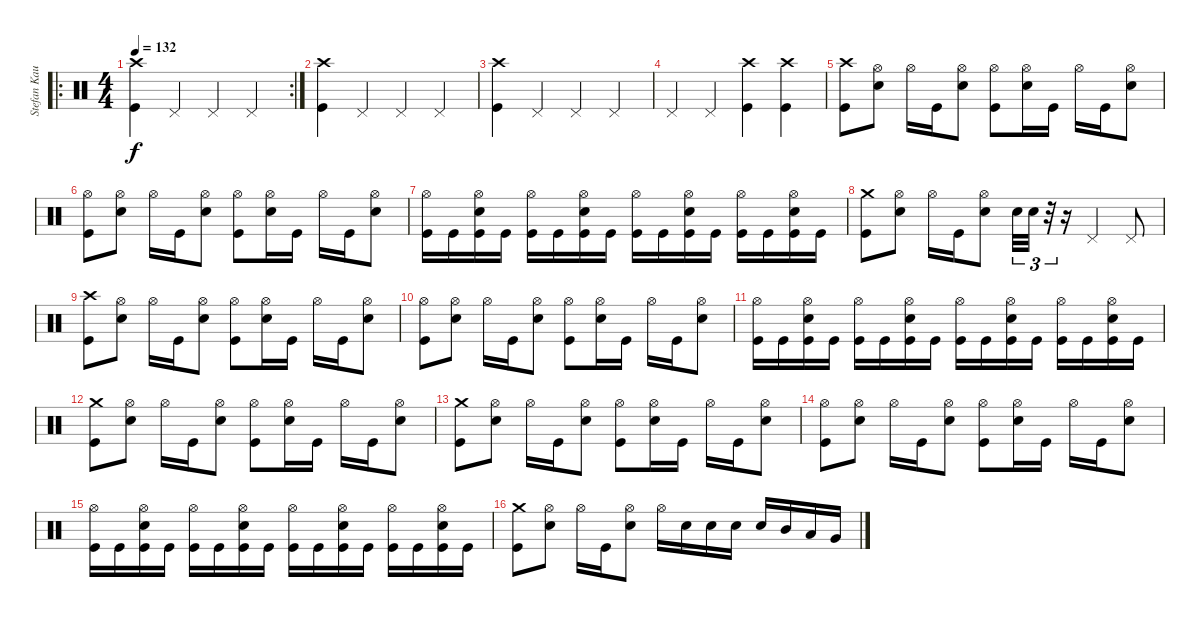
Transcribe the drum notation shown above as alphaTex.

\track ("Stefan Kaufmann" "Stefan Kau") {instrument percussion}
\staff {score}
\articulation defaults
\ro
\rc 2
\ts (4 4)
\tempo 132
\clef neutral
\ks c
("Crash high (hit)" "Kick (hit)").4{dy f} "Pedal Hi-Hat (hit)".4 "Pedal Hi-Hat (hit)".4 "Pedal Hi-Hat (hit)".4 |
("Crash high (hit)" "Kick (hit)").4 "Pedal Hi-Hat (hit)".4 "Pedal Hi-Hat (hit)".4 "Pedal Hi-Hat (hit)".4 |
("Crash high (hit)" "Kick (hit)").4 "Pedal Hi-Hat (hit)".4 "Pedal Hi-Hat (hit)".4 "Pedal Hi-Hat (hit)".4 |
"Pedal Hi-Hat (hit)".4 "Pedal Hi-Hat (hit)".4 ("Crash high (hit)" "Kick (hit)").4 ("Crash high (hit)" "Kick (hit)").4 |
("Crash high (hit)" "Kick (hit)").8 ("Hi-Hat (open)" "Snare (hit) 2").8 "Hi-Hat (open)".16 "Kick (hit)".16 ("Hi-Hat (open)" "Snare (hit) 2").8 ("Hi-Hat (open)" "Kick (hit)").8 ("Hi-Hat (open)" "Snare (hit) 2").16 "Kick (hit)".16 "Hi-Hat (open)".16 "Kick (hit)".16 ("Hi-Hat (open)" "Snare (hit) 2").8 |
("Hi-Hat (open)" "Kick (hit)").8 ("Hi-Hat (open)" "Snare (hit) 2").8 "Hi-Hat (open)".16 "Kick (hit)".16 ("Hi-Hat (open)" "Snare (hit) 2").8 ("Hi-Hat (open)" "Kick (hit)").8 ("Hi-Hat (open)" "Snare (hit) 2").16 "Kick (hit)".16 "Hi-Hat (open)".16 "Kick (hit)".16 ("Hi-Hat (open)" "Snare (hit) 2").8 |
("Hi-Hat (open)" "Kick (hit)").16 "Kick (hit)".16 ("Hi-Hat (open)" "Snare (hit) 2" "Kick (hit)").16 "Kick (hit)".16 ("Hi-Hat (open)" "Kick (hit)").16 "Kick (hit)".16 ("Hi-Hat (open)" "Snare (hit) 2" "Kick (hit)").16 "Kick (hit)".16 ("Hi-Hat (open)" "Kick (hit)").16 "Kick (hit)".16 ("Hi-Hat (open)" "Snare (hit) 2" "Kick (hit)").16 "Kick (hit)".16 ("Hi-Hat (open)" "Kick (hit)").16 "Kick (hit)".16 ("Hi-Hat (open)" "Snare (hit) 2" "Kick (hit)").16 "Kick (hit)".16 |
("Crash medium (hit)" "Kick (hit)").8 ("Hi-Hat (open)" "Snare (hit) 2").8 "Hi-Hat (open)".16 "Kick (hit)".16 ("Hi-Hat (open)" "Snare (hit) 2").8 "Snare (hit) 2".32{tu (3 2)} "Snare (hit) 2".32{tu (3 2)} r.32{tu (3 2)} r.16 "Pedal Hi-Hat (hit)".4 "Pedal Hi-Hat (hit)".8 |
("Crash high (hit)" "Kick (hit)").8 ("Hi-Hat (open)" "Snare (hit) 2").8 "Hi-Hat (open)".16 "Kick (hit)".16 ("Hi-Hat (open)" "Snare (hit) 2").8 ("Hi-Hat (open)" "Kick (hit)").8 ("Hi-Hat (open)" "Snare (hit) 2").16 "Kick (hit)".16 "Hi-Hat (open)".16 "Kick (hit)".16 ("Hi-Hat (open)" "Snare (hit) 2").8 |
("Hi-Hat (open)" "Kick (hit)").8 ("Hi-Hat (open)" "Snare (hit) 2").8 "Hi-Hat (open)".16 "Kick (hit)".16 ("Hi-Hat (open)" "Snare (hit) 2").8 ("Hi-Hat (open)" "Kick (hit)").8 ("Hi-Hat (open)" "Snare (hit) 2").16 "Kick (hit)".16 "Hi-Hat (open)".16 "Kick (hit)".16 ("Hi-Hat (open)" "Snare (hit) 2").8 |
("Hi-Hat (open)" "Kick (hit)").16 "Kick (hit)".16 ("Hi-Hat (open)" "Snare (hit) 2" "Kick (hit)").16 "Kick (hit)".16 ("Hi-Hat (open)" "Kick (hit)").16 "Kick (hit)".16 ("Hi-Hat (open)" "Snare (hit) 2" "Kick (hit)").16 "Kick (hit)".16 ("Hi-Hat (open)" "Kick (hit)").16 "Kick (hit)".16 ("Hi-Hat (open)" "Snare (hit) 2" "Kick (hit)").16 "Kick (hit)".16 ("Hi-Hat (open)" "Kick (hit)").16 "Kick (hit)".16 ("Hi-Hat (open)" "Snare (hit) 2" "Kick (hit)").16 "Kick (hit)".16 |
("Crash medium (hit)" "Kick (hit)").8 ("Hi-Hat (open)" "Snare (hit) 2").8 "Hi-Hat (open)".16 "Kick (hit)".16 ("Hi-Hat (open)" "Snare (hit) 2").8 ("Hi-Hat (open)" "Kick (hit)").8 ("Hi-Hat (open)" "Snare (hit) 2").16 "Kick (hit)".16 "Hi-Hat (open)".16 "Kick (hit)".16 ("Hi-Hat (open)" "Snare (hit) 2").8 |
("Crash medium (hit)" "Kick (hit)").8 ("Hi-Hat (open)" "Snare (hit) 2").8 "Hi-Hat (open)".16 "Kick (hit)".16 ("Hi-Hat (open)" "Snare (hit) 2").8 ("Hi-Hat (open)" "Kick (hit)").8 ("Hi-Hat (open)" "Snare (hit) 2").16 "Kick (hit)".16 "Hi-Hat (open)".16 "Kick (hit)".16 ("Hi-Hat (open)" "Snare (hit) 2").8 |
("Hi-Hat (open)" "Kick (hit)").8 ("Hi-Hat (open)" "Snare (hit) 2").8 "Hi-Hat (open)".16 "Kick (hit)".16 ("Hi-Hat (open)" "Snare (hit) 2").8 ("Hi-Hat (open)" "Kick (hit)").8 ("Hi-Hat (open)" "Snare (hit) 2").16 "Kick (hit)".16 "Hi-Hat (open)".16 "Kick (hit)".16 ("Hi-Hat (open)" "Snare (hit) 2").8 |
("Hi-Hat (open)" "Kick (hit)").16 "Kick (hit)".16 ("Hi-Hat (open)" "Snare (hit) 2" "Kick (hit)").16 "Kick (hit)".16 ("Hi-Hat (open)" "Kick (hit)").16 "Kick (hit)".16 ("Hi-Hat (open)" "Snare (hit) 2" "Kick (hit)").16 "Kick (hit)".16 ("Hi-Hat (open)" "Kick (hit)").16 "Kick (hit)".16 ("Hi-Hat (open)" "Snare (hit) 2" "Kick (hit)").16 "Kick (hit)".16 ("Hi-Hat (open)" "Kick (hit)").16 "Kick (hit)".16 ("Hi-Hat (open)" "Snare (hit) 2" "Kick (hit)").16 "Kick (hit)".16 |
("Crash medium (hit)" "Kick (hit)").8 ("Hi-Hat (open)" "Snare (hit) 2").8 "Hi-Hat (open)".16 "Kick (hit)".16 ("Hi-Hat (open)" "Snare (hit) 2").8 "Hi-Hat (open)".16 "Snare (hit) 2".16 "Snare (hit) 2".16 "Snare (hit) 2".16 "Snare (hit) 2".16 "Mid Tom (hit)".16 "Low Tom (hit)".16 "Very Low Tom (hit)".16
